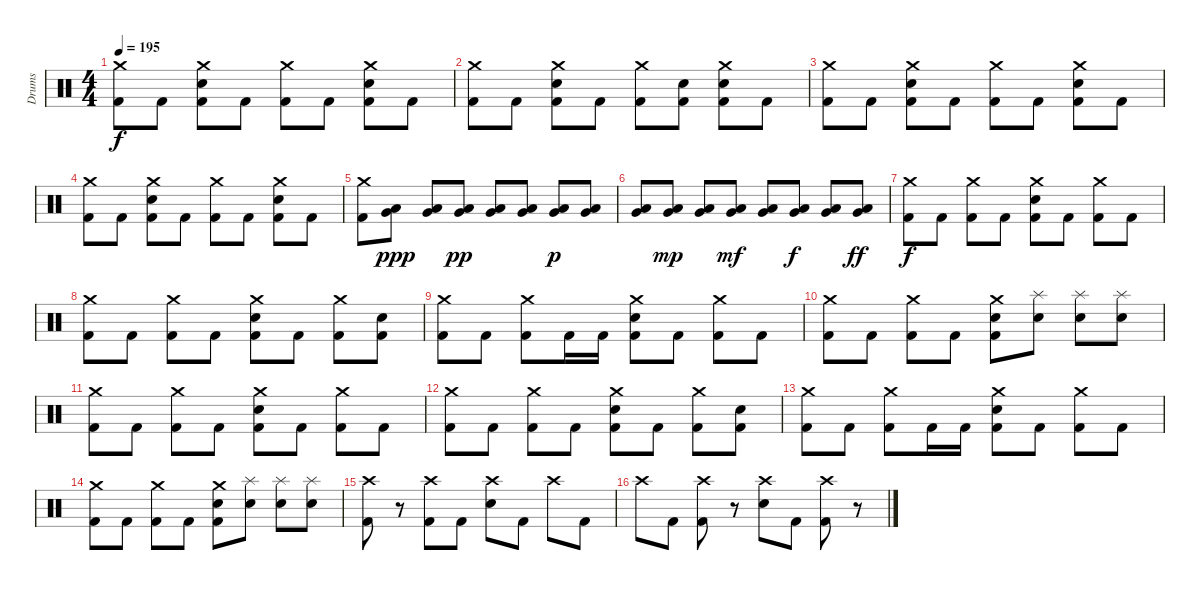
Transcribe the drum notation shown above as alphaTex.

\track ("Drums" "Drums") {instrument percussion}
\staff {score}
\articulation defaults
\ts (4 4)
\tempo 195
\clef neutral
\ks c
("Crash medium (hit)" "Kick (hit) 2").8{dy f} "Kick (hit) 2".8 ("Crash medium (hit)" "Electric Snare (hit)" "Kick (hit) 2").8 "Kick (hit) 2".8 ("Crash medium (hit)" "Kick (hit) 2").8 "Kick (hit) 2".8 ("Crash medium (hit)" "Electric Snare (hit)" "Kick (hit) 2").8 "Kick (hit) 2".8 |
("Crash medium (hit)" "Kick (hit) 2").8 "Kick (hit) 2".8 ("Crash medium (hit)" "Electric Snare (hit)" "Kick (hit) 2").8 "Kick (hit) 2".8 ("Crash medium (hit)" "Kick (hit) 2").8 ("Electric Snare (hit)" "Kick (hit) 2").8 ("Crash medium (hit)" "Electric Snare (hit)" "Kick (hit) 2").8 "Kick (hit) 2".8 |
("Crash medium (hit)" "Kick (hit) 2").8 "Kick (hit) 2".8 ("Crash medium (hit)" "Electric Snare (hit)" "Kick (hit) 2").8 "Kick (hit) 2".8 ("Crash medium (hit)" "Kick (hit) 2").8 "Kick (hit) 2".8 ("Crash medium (hit)" "Electric Snare (hit)" "Kick (hit) 2").8 "Kick (hit) 2".8 |
("Crash medium (hit)" "Kick (hit) 2").8 "Kick (hit) 2".8 ("Crash medium (hit)" "Electric Snare (hit)" "Kick (hit) 2").8 "Kick (hit) 2".8 ("Crash medium (hit)" "Kick (hit) 2").8 "Kick (hit) 2".8 ("Crash medium (hit)" "Electric Snare (hit)" "Kick (hit) 2").8 "Kick (hit) 2".8 |
("Crash medium (hit)" "Kick (hit) 2").8 ("Very Low Tom (hit)" "Low Floor Tom (hit)").8{dy ppp} ("Very Low Tom (hit)" "Low Floor Tom (hit)").8 ("Very Low Tom (hit)" "Low Floor Tom (hit)").8{dy pp} ("Very Low Tom (hit)" "Low Floor Tom (hit)").8 ("Very Low Tom (hit)" "Low Floor Tom (hit)").8 ("Very Low Tom (hit)" "Low Floor Tom (hit)").8{dy p} ("Very Low Tom (hit)" "Low Floor Tom (hit)").8 |
("Very Low Tom (hit)" "Low Floor Tom (hit)").8 ("Very Low Tom (hit)" "Low Floor Tom (hit)").8{dy mp} ("Very Low Tom (hit)" "Low Floor Tom (hit)").8 ("Very Low Tom (hit)" "Low Floor Tom (hit)").8{dy mf} ("Very Low Tom (hit)" "Low Floor Tom (hit)").8 ("Very Low Tom (hit)" "Low Floor Tom (hit)").8{dy f} ("Very Low Tom (hit)" "Low Floor Tom (hit)").8 ("Very Low Tom (hit)" "Low Floor Tom (hit)").8{dy ff} |
("Crash medium (hit)" "Kick (hit) 2").8{dy f} "Kick (hit) 2".8 ("Crash medium (hit)" "Kick (hit) 2").8 "Kick (hit) 2".8 ("Crash medium (hit)" "Electric Snare (hit)" "Kick (hit) 2").8 "Kick (hit) 2".8 ("Crash medium (hit)" "Kick (hit) 2").8 "Kick (hit) 2".8 |
("Crash medium (hit)" "Kick (hit) 2").8 "Kick (hit) 2".8 ("Crash medium (hit)" "Kick (hit) 2").8 "Kick (hit) 2".8 ("Crash medium (hit)" "Electric Snare (hit)" "Kick (hit) 2").8 "Kick (hit) 2".8 ("Crash medium (hit)" "Kick (hit) 2").8 ("Electric Snare (hit)" "Kick (hit) 2").8 |
("Crash medium (hit)" "Kick (hit) 2").8 "Kick (hit) 2".8 ("Crash medium (hit)" "Kick (hit) 2").8 "Kick (hit) 2".16 "Kick (hit) 2".16 ("Crash medium (hit)" "Electric Snare (hit)" "Kick (hit) 2").8 "Kick (hit) 2".8 ("Crash medium (hit)" "Kick (hit) 2").8 "Kick (hit) 2".8 |
("Crash medium (hit)" "Kick (hit) 2").8 "Kick (hit) 2".8 ("Crash medium (hit)" "Kick (hit) 2").8 "Kick (hit) 2".8 ("Crash medium (hit)" "Electric Snare (hit)" "Kick (hit) 2").8 ("Splash (hit)" "Electric Snare (hit)").8 ("Splash (hit)" "Electric Snare (hit)").8 ("Splash (hit)" "Electric Snare (hit)").8 |
("Crash medium (hit)" "Kick (hit) 2").8 "Kick (hit) 2".8 ("Crash medium (hit)" "Kick (hit) 2").8 "Kick (hit) 2".8 ("Crash medium (hit)" "Electric Snare (hit)" "Kick (hit) 2").8 "Kick (hit) 2".8 ("Crash medium (hit)" "Kick (hit) 2").8 "Kick (hit) 2".8 |
("Crash medium (hit)" "Kick (hit) 2").8 "Kick (hit) 2".8 ("Crash medium (hit)" "Kick (hit) 2").8 "Kick (hit) 2".8 ("Crash medium (hit)" "Electric Snare (hit)" "Kick (hit) 2").8 "Kick (hit) 2".8 ("Crash medium (hit)" "Kick (hit) 2").8 ("Electric Snare (hit)" "Kick (hit) 2").8 |
("Crash medium (hit)" "Kick (hit) 2").8 "Kick (hit) 2".8 ("Crash medium (hit)" "Kick (hit) 2").8 "Kick (hit) 2".16 "Kick (hit) 2".16 ("Crash medium (hit)" "Electric Snare (hit)" "Kick (hit) 2").8 "Kick (hit) 2".8 ("Crash medium (hit)" "Kick (hit) 2").8 "Kick (hit) 2".8 |
("Crash medium (hit)" "Kick (hit) 2").8 "Kick (hit) 2".8 ("Crash medium (hit)" "Kick (hit) 2").8 "Kick (hit) 2".8 ("Crash medium (hit)" "Electric Snare (hit)" "Kick (hit) 2").8 ("Splash (hit)" "Electric Snare (hit)").8 ("Splash (hit)" "Electric Snare (hit)").8 ("Splash (hit)" "Electric Snare (hit)").8 |
("Crash high (hit)" "Kick (hit) 2").8 r.8 ("Crash high (hit)" "Kick (hit) 2").8 "Kick (hit) 2".8 ("Crash high (hit)" "Electric Snare (hit)").8 "Kick (hit) 2".8 "Crash high (hit)".8 "Kick (hit) 2".8 |
"Crash high (hit)".8 "Kick (hit) 2".8 ("Crash high (hit)" "Kick (hit) 2").8 r.8 ("Crash high (hit)" "Electric Snare (hit)").8 "Kick (hit) 2".8 ("Crash high (hit)" "Kick (hit) 2").8 r.8
